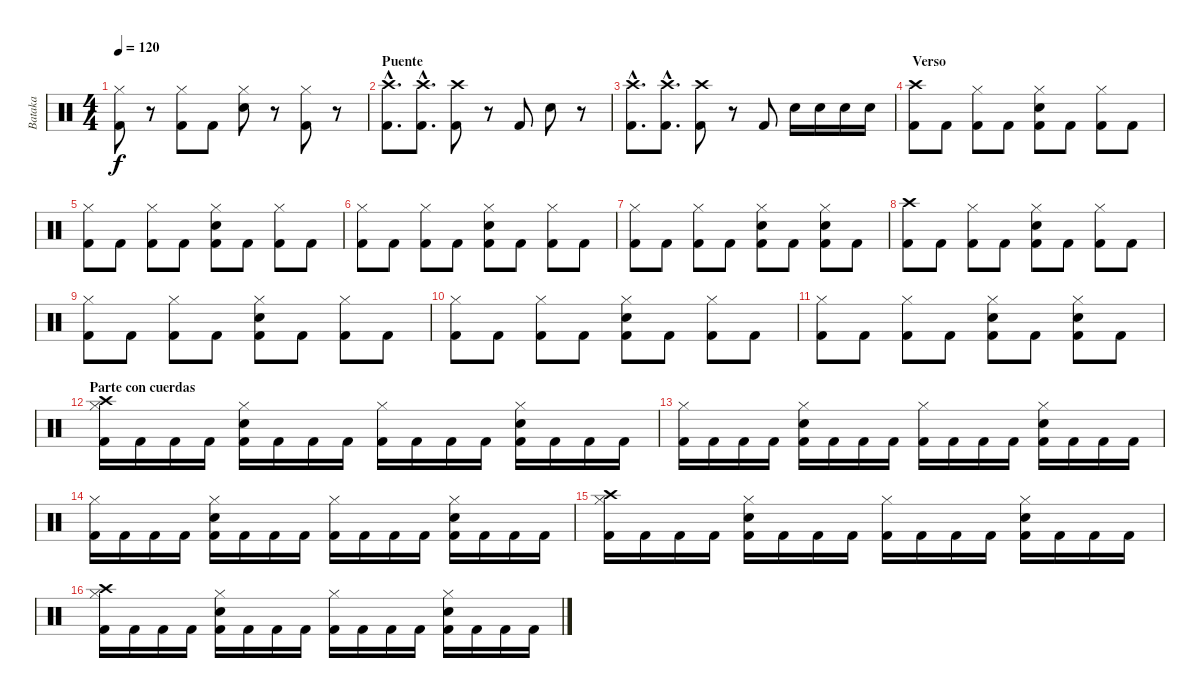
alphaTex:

\track ("Bataka" "Bataka") {instrument percussion}
\staff {score}
\articulation defaults
\ts (4 4)
\tempo 120
\clef neutral
\ks c
("Hi-Hat (closed)" "Kick (hit) 2").8{dy f} r.8 ("Hi-Hat (closed)" "Kick (hit) 2").8 "Kick (hit) 2".8 ("Hi-Hat (closed)" "Snare (hit) 2").8 r.8 ("Hi-Hat (closed)" "Kick (hit) 2").8 r.8 |
\section ("" "Puente")
("Crash high (hit)"{hac} "Kick (hit) 2"{hac}).8{d} ("Crash high (hit)"{hac} "Kick (hit) 2"{hac}).8{d} ("Crash high (hit)" "Kick (hit) 2").8 r.8 "Kick (hit) 2".8 "Snare (hit) 2".8 r.8 |
("Crash high (hit)"{hac} "Kick (hit) 2"{hac}).8{d} ("Crash high (hit)"{hac} "Kick (hit) 2"{hac}).8{d} ("Crash high (hit)" "Kick (hit) 2").8 r.8 "Kick (hit) 2".8 "Snare (hit) 2".16 "Snare (hit) 2".16 "Snare (hit) 2".16 "Snare (hit) 2".16 |
\section ("" " Verso")
("Crash high (hit)" "Kick (hit) 2").8 "Kick (hit) 2".8 ("Hi-Hat (closed)" "Kick (hit) 2").8 "Kick (hit) 2".8 ("Hi-Hat (closed)" "Snare (hit) 2" "Kick (hit) 2").8 "Kick (hit) 2".8 ("Hi-Hat (closed)" "Kick (hit) 2").8 "Kick (hit) 2".8 |
("Hi-Hat (closed)" "Kick (hit) 2").8 "Kick (hit) 2".8 ("Hi-Hat (closed)" "Kick (hit) 2").8 "Kick (hit) 2".8 ("Hi-Hat (closed)" "Snare (hit) 2" "Kick (hit) 2").8 "Kick (hit) 2".8 ("Hi-Hat (closed)" "Kick (hit) 2").8 "Kick (hit) 2".8 |
("Hi-Hat (closed)" "Kick (hit) 2").8 "Kick (hit) 2".8 ("Hi-Hat (closed)" "Kick (hit) 2").8 "Kick (hit) 2".8 ("Hi-Hat (closed)" "Snare (hit) 2" "Kick (hit) 2").8 "Kick (hit) 2".8 ("Hi-Hat (closed)" "Kick (hit) 2").8 "Kick (hit) 2".8 |
("Hi-Hat (closed)" "Kick (hit) 2").8 "Kick (hit) 2".8 ("Hi-Hat (closed)" "Kick (hit) 2").8 "Kick (hit) 2".8 ("Hi-Hat (closed)" "Snare (hit) 2" "Kick (hit) 2").8 "Kick (hit) 2".8 ("Hi-Hat (closed)" "Snare (hit) 2" "Kick (hit) 2").8 "Kick (hit) 2".8 |
("Crash high (hit)" "Kick (hit) 2").8 "Kick (hit) 2".8 ("Hi-Hat (closed)" "Kick (hit) 2").8 "Kick (hit) 2".8 ("Hi-Hat (closed)" "Snare (hit) 2" "Kick (hit) 2").8 "Kick (hit) 2".8 ("Hi-Hat (closed)" "Kick (hit) 2").8 "Kick (hit) 2".8 |
("Hi-Hat (closed)" "Kick (hit) 2").8 "Kick (hit) 2".8 ("Hi-Hat (closed)" "Kick (hit) 2").8 "Kick (hit) 2".8 ("Hi-Hat (closed)" "Snare (hit) 2" "Kick (hit) 2").8 "Kick (hit) 2".8 ("Hi-Hat (closed)" "Kick (hit) 2").8 "Kick (hit) 2".8 |
("Hi-Hat (closed)" "Kick (hit) 2").8 "Kick (hit) 2".8 ("Hi-Hat (closed)" "Kick (hit) 2").8 "Kick (hit) 2".8 ("Hi-Hat (closed)" "Snare (hit) 2" "Kick (hit) 2").8 "Kick (hit) 2".8 ("Hi-Hat (closed)" "Kick (hit) 2").8 "Kick (hit) 2".8 |
("Hi-Hat (closed)" "Kick (hit) 2").8 "Kick (hit) 2".8 ("Hi-Hat (closed)" "Kick (hit) 2").8 "Kick (hit) 2".8 ("Hi-Hat (closed)" "Snare (hit) 2" "Kick (hit) 2").8 "Kick (hit) 2".8 ("Hi-Hat (closed)" "Snare (hit) 2" "Kick (hit) 2").8 "Kick (hit) 2".8 |
\section ("" "Parte con cuerdas")
("Hi-Hat (closed)" "Crash high (hit)" "Kick (hit) 2").16 "Kick (hit) 2".16 "Kick (hit) 2".16 "Kick (hit) 2".16 ("Hi-Hat (closed)" "Snare (hit) 2" "Kick (hit) 2").16 "Kick (hit) 2".16 "Kick (hit) 2".16 "Kick (hit) 2".16 ("Hi-Hat (closed)" "Kick (hit) 2").16 "Kick (hit) 2".16 "Kick (hit) 2".16 "Kick (hit) 2".16 ("Hi-Hat (closed)" "Snare (hit) 2" "Kick (hit) 2").16 "Kick (hit) 2".16 "Kick (hit) 2".16 "Kick (hit) 2".16 |
("Hi-Hat (closed)" "Kick (hit) 2").16 "Kick (hit) 2".16 "Kick (hit) 2".16 "Kick (hit) 2".16 ("Hi-Hat (closed)" "Snare (hit) 2" "Kick (hit) 2").16 "Kick (hit) 2".16 "Kick (hit) 2".16 "Kick (hit) 2".16 ("Hi-Hat (closed)" "Kick (hit) 2").16 "Kick (hit) 2".16 "Kick (hit) 2".16 "Kick (hit) 2".16 ("Hi-Hat (closed)" "Snare (hit) 2" "Kick (hit) 2").16 "Kick (hit) 2".16 "Kick (hit) 2".16 "Kick (hit) 2".16 |
("Hi-Hat (closed)" "Kick (hit) 2").16 "Kick (hit) 2".16 "Kick (hit) 2".16 "Kick (hit) 2".16 ("Hi-Hat (closed)" "Snare (hit) 2" "Kick (hit) 2").16 "Kick (hit) 2".16 "Kick (hit) 2".16 "Kick (hit) 2".16 ("Hi-Hat (closed)" "Kick (hit) 2").16 "Kick (hit) 2".16 "Kick (hit) 2".16 "Kick (hit) 2".16 ("Hi-Hat (closed)" "Snare (hit) 2" "Kick (hit) 2").16 "Kick (hit) 2".16 "Kick (hit) 2".16 "Kick (hit) 2".16 |
("Hi-Hat (closed)" "Crash high (hit)" "Kick (hit) 2").16 "Kick (hit) 2".16 "Kick (hit) 2".16 "Kick (hit) 2".16 ("Hi-Hat (closed)" "Snare (hit) 2" "Kick (hit) 2").16 "Kick (hit) 2".16 "Kick (hit) 2".16 "Kick (hit) 2".16 ("Hi-Hat (closed)" "Kick (hit) 2").16 "Kick (hit) 2".16 "Kick (hit) 2".16 "Kick (hit) 2".16 ("Hi-Hat (closed)" "Snare (hit) 2" "Kick (hit) 2").16 "Kick (hit) 2".16 "Kick (hit) 2".16 "Kick (hit) 2".16 |
("Hi-Hat (closed)" "Crash high (hit)" "Kick (hit) 2").16 "Kick (hit) 2".16 "Kick (hit) 2".16 "Kick (hit) 2".16 ("Hi-Hat (closed)" "Snare (hit) 2" "Kick (hit) 2").16 "Kick (hit) 2".16 "Kick (hit) 2".16 "Kick (hit) 2".16 ("Hi-Hat (closed)" "Kick (hit) 2").16 "Kick (hit) 2".16 "Kick (hit) 2".16 "Kick (hit) 2".16 ("Hi-Hat (closed)" "Snare (hit) 2" "Kick (hit) 2").16 "Kick (hit) 2".16 "Kick (hit) 2".16 "Kick (hit) 2".16
